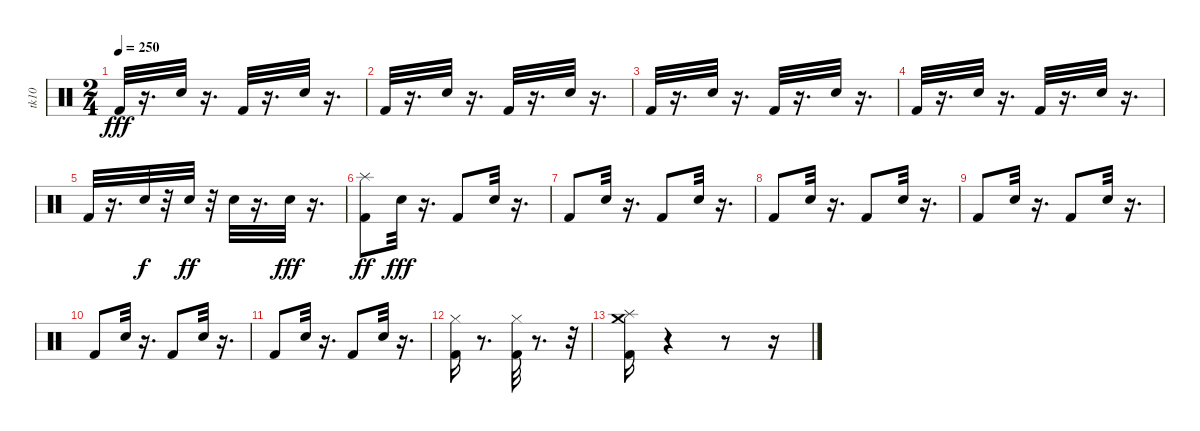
\track ("tk10" "tk10") {instrument percussion}
\staff {score}
\articulation defaults
\ts (2 4)
\tempo 250
\clef neutral
\ks c "Kick (hit) 2".32{dy fff}
r.16{d} "Snare (hit) 2".32 r.16{d} "Kick (hit) 2".32 r.16{d} "Snare (hit) 2".32 r.16{d} |
"Kick (hit) 2".32 r.16{d} "Snare (hit) 2".32 r.16{d} "Kick (hit) 2".32 r.16{d} "Snare (hit) 2".32 r.16{d} |
"Kick (hit) 2".32 r.16{d} "Snare (hit) 2".32 r.16{d} "Kick (hit) 2".32 r.16{d} "Snare (hit) 2".32 r.16{d} |
"Kick (hit) 2".32 r.16{d} "Snare (hit) 2".32 r.16{d} "Kick (hit) 2".32 r.16{d} "Snare (hit) 2".32 r.16{d} |
"Kick (hit) 2".32 r.16{d} "Electric Snare (hit)".32{dy f} r.32 "Electric Snare (hit)".32{dy ff} r.32 "Electric Snare (hit)".32 r.16{d} "Electric Snare (hit)".32{dy fff} r.16{d} |
("Kick (hit) 2" "Splash (hit)").8{dy ff} "Snare (hit) 2".32{dy fff} r.16{d} "Kick (hit) 2".8 "Snare (hit) 2".32 r.16{d} |
"Kick (hit) 2".8 "Snare (hit) 2".32 r.16{d} "Kick (hit) 2".8 "Snare (hit) 2".32 r.16{d} |
"Kick (hit) 2".8 "Snare (hit) 2".32 r.16{d} "Kick (hit) 2".8 "Snare (hit) 2".32 r.16{d} |
"Kick (hit) 2".8 "Snare (hit) 2".32 r.16{d} "Kick (hit) 2".8 "Snare (hit) 2".32 r.16{d} |
"Kick (hit) 2".8 "Snare (hit) 2".32 r.16{d} "Kick (hit) 2".8 "Snare (hit) 2".32 r.16{d} |
"Kick (hit) 2".8 "Snare (hit) 2".32 r.16{d} "Kick (hit) 2".8 "Snare (hit) 2".32 r.16{d} |
("Hi-Hat (closed)" "Kick (hit) 2").16 r.8{d} ("Kick (hit) 2" "Hi-Hat (closed)").32 r.8{d} r.32 |
("Kick (hit) 2" "Crash medium (hit)" "Splash (hit)").16 r.4 r.8 r.16
